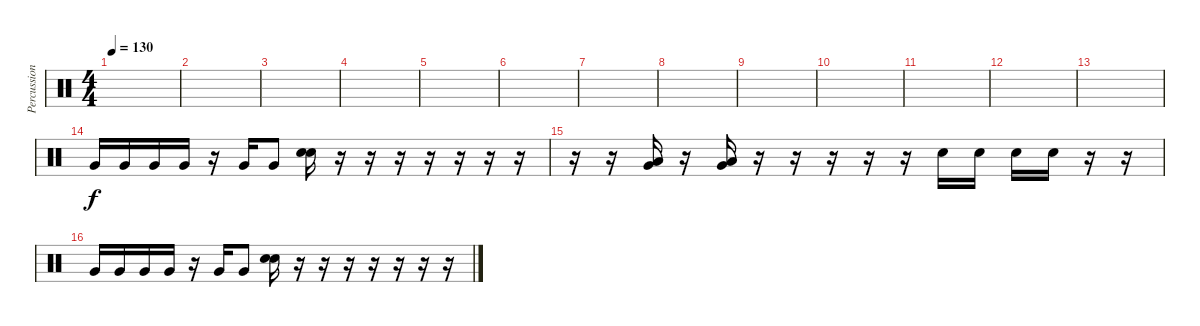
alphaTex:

\track ("Percussion" "Percussion") {instrument percussion}
\staff {score}
\articulation defaults
\ts (4 4)
\tempo 130
\clef neutral
\ks c
|
|
|
|
|
|
|
|
|
|
|
|
|
"Very Low Tom (hit)".16 "Very Low Tom (hit)".16 "Very Low Tom (hit)".16 "Very Low Tom (hit)".16 r.16 "Very Low Tom (hit)".16 "Very Low Tom (hit)".8 ("Snare (hit) 2" "Electric Snare (hit)").16 r.16 r.16 r.16 r.16 r.16 r.16 r.16 |
r.16 r.16 ("Low Tom (hit)" "Very Low Tom (hit)").16 r.16 ("Low Tom (hit)" "Very Low Tom (hit)").16 r.16 r.16 r.16 r.16 r.16 "Electric Snare (hit)".16 "Electric Snare (hit)".16 "Electric Snare (hit)".16 "Electric Snare (hit)".16 r.16 r.16 |
"Very Low Tom (hit)".16 "Very Low Tom (hit)".16 "Very Low Tom (hit)".16 "Very Low Tom (hit)".16 r.16 "Very Low Tom (hit)".16 "Very Low Tom (hit)".8 ("Snare (hit) 2" "Electric Snare (hit)").16 r.16 r.16 r.16 r.16 r.16 r.16 r.16
